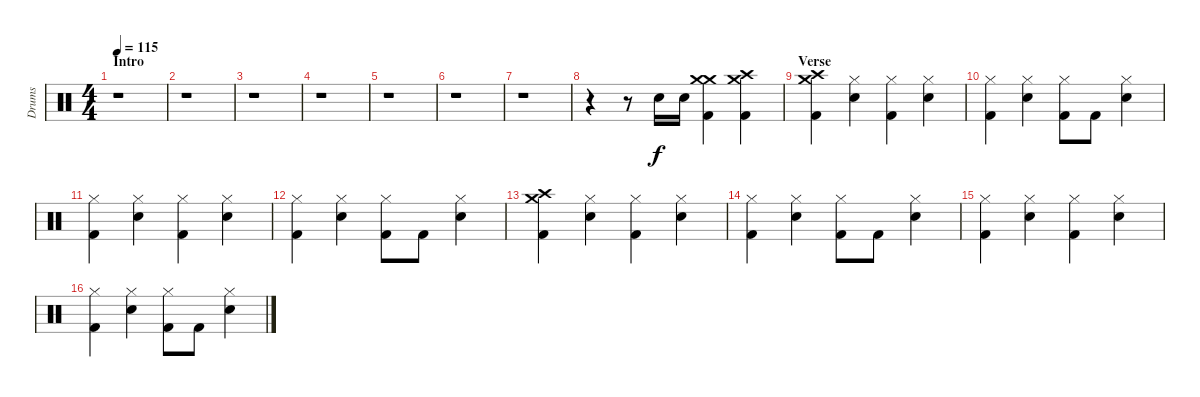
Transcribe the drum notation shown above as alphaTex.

\track ("Drums" "Drums") {instrument percussion}
\staff {score}
\articulation defaults
\ts (4 4)
\section ("" "Intro")
\tempo 115
\clef neutral
\ks c
r.1{dy f} |
r.1 |
r.1 |
r.1 |
r.1 |
r.1 |
r.1 |
r.4 r.8 "Snare (hit) 2".16 "Snare (hit) 2".16 ("Crash medium (hit)" "Crash medium (hit)" "Kick (hit) 2").4 ("Crash high (hit)" "Crash medium (hit)" "Kick (hit) 2").4 |
\section ("" "Verse")
("Crash medium (hit)" "Crash high (hit)" "Kick (hit) 2").4 ("Hi-Hat (closed)" "Snare (hit) 2").4 ("Hi-Hat (closed)" "Kick (hit) 2").4 ("Hi-Hat (closed)" "Snare (hit) 2").4 |
("Hi-Hat (closed)" "Kick (hit) 2").4 ("Hi-Hat (closed)" "Snare (hit) 2").4 ("Hi-Hat (closed)" "Kick (hit) 2").8 "Kick (hit) 2".8 ("Hi-Hat (closed)" "Snare (hit) 2").4 |
("Hi-Hat (closed)" "Kick (hit) 2").4 ("Hi-Hat (closed)" "Snare (hit) 2").4 ("Hi-Hat (closed)" "Kick (hit) 2").4 ("Hi-Hat (closed)" "Snare (hit) 2").4 |
("Hi-Hat (closed)" "Kick (hit) 2").4 ("Hi-Hat (closed)" "Snare (hit) 2").4 ("Hi-Hat (closed)" "Kick (hit) 2").8 "Kick (hit) 2".8 ("Hi-Hat (closed)" "Snare (hit) 2").4 |
("Crash medium (hit)" "Crash high (hit)" "Kick (hit) 2").4 ("Hi-Hat (closed)" "Snare (hit) 2").4 ("Hi-Hat (closed)" "Kick (hit) 2").4 ("Hi-Hat (closed)" "Snare (hit) 2").4 |
("Hi-Hat (closed)" "Kick (hit) 2").4 ("Hi-Hat (closed)" "Snare (hit) 2").4 ("Hi-Hat (closed)" "Kick (hit) 2").8 "Kick (hit) 2".8 ("Hi-Hat (closed)" "Snare (hit) 2").4 |
("Hi-Hat (closed)" "Kick (hit) 2").4 ("Hi-Hat (closed)" "Snare (hit) 2").4 ("Hi-Hat (closed)" "Kick (hit) 2").4 ("Hi-Hat (closed)" "Snare (hit) 2").4 |
("Hi-Hat (closed)" "Kick (hit) 2").4 ("Hi-Hat (closed)" "Snare (hit) 2").4 ("Hi-Hat (closed)" "Kick (hit) 2").8 "Kick (hit) 2".8 ("Hi-Hat (closed)" "Snare (hit) 2").4
